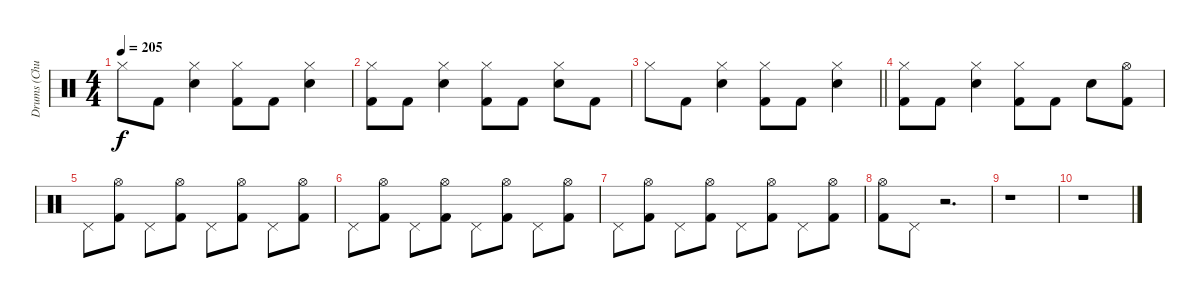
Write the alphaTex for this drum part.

\track ("Drums (Chuck Behler)" "Drums (Chu") {instrument percussion}
\staff {score}
\articulation defaults
\ts (4 4)
\tempo 205
\clef neutral
\ks c "Hi-Hat (closed)".8{dy f} "Kick (hit) 2".8
("Hi-Hat (closed)" "Electric Snare (hit)").4 ("Hi-Hat (closed)" "Kick (hit) 2").8 "Kick (hit) 2".8 ("Hi-Hat (closed)" "Electric Snare (hit)").4 |
("Hi-Hat (closed)" "Kick (hit) 2").8 "Kick (hit) 2".8 ("Hi-Hat (closed)" "Electric Snare (hit)").4 ("Hi-Hat (closed)" "Kick (hit) 2").8 "Kick (hit) 2".8 ("Hi-Hat (closed)" "Electric Snare (hit)").8 "Kick (hit) 2".8 |
\barLineRight lightlight "Hi-Hat (closed)".8 "Kick (hit) 2".8
("Hi-Hat (closed)" "Electric Snare (hit)").4 ("Hi-Hat (closed)" "Kick (hit) 2").8 "Kick (hit) 2".8 ("Hi-Hat (closed)" "Electric Snare (hit)").4 |
("Hi-Hat (closed)" "Kick (hit) 2").8 "Kick (hit) 2".8 ("Hi-Hat (closed)" "Electric Snare (hit)").4 ("Hi-Hat (closed)" "Kick (hit) 2").8 "Kick (hit) 2".8 "Electric Snare (hit)".8 ("Hi-Hat (open)" "Kick (hit) 2").8 |
"Pedal Hi-Hat (hit)".8 ("Hi-Hat (open)" "Kick (hit) 2").8 "Pedal Hi-Hat (hit)".8 ("Hi-Hat (open)" "Kick (hit) 2").8 "Pedal Hi-Hat (hit)".8 ("Hi-Hat (open)" "Kick (hit) 2").8 "Pedal Hi-Hat (hit)".8 ("Hi-Hat (open)" "Kick (hit) 2").8 |
"Pedal Hi-Hat (hit)".8 ("Hi-Hat (open)" "Kick (hit) 2").8 "Pedal Hi-Hat (hit)".8 ("Hi-Hat (open)" "Kick (hit) 2").8 "Pedal Hi-Hat (hit)".8 ("Hi-Hat (open)" "Kick (hit) 2").8 "Pedal Hi-Hat (hit)".8 ("Hi-Hat (open)" "Kick (hit) 2").8 |
"Pedal Hi-Hat (hit)".8 ("Hi-Hat (open)" "Kick (hit) 2").8 "Pedal Hi-Hat (hit)".8 ("Hi-Hat (open)" "Kick (hit) 2").8 "Pedal Hi-Hat (hit)".8 ("Hi-Hat (open)" "Kick (hit) 2").8 "Pedal Hi-Hat (hit)".8 ("Hi-Hat (open)" "Kick (hit) 2").8 |
("Hi-Hat (open)" "Kick (hit) 2").8 "Pedal Hi-Hat (hit)".8 r.2{d} |
r.1 |
r.1
